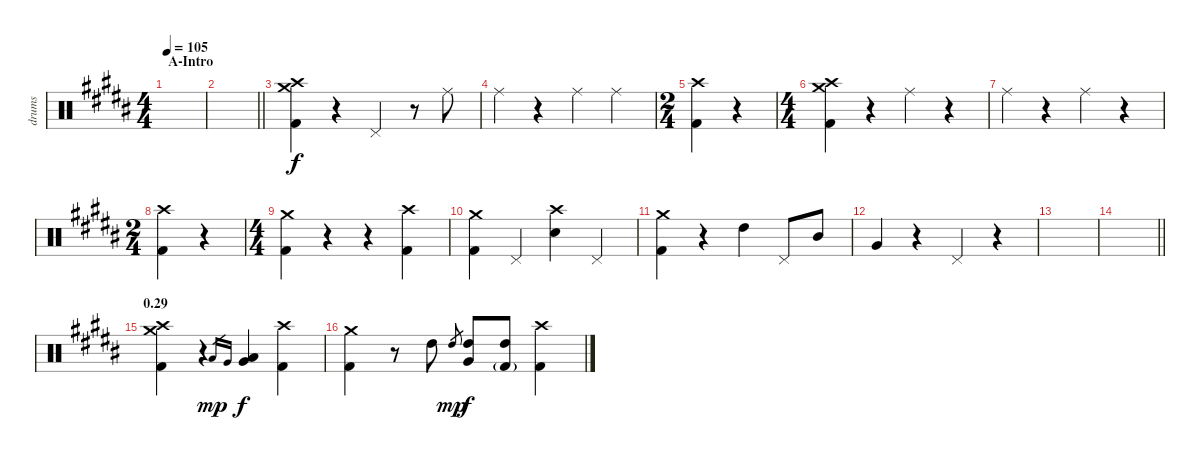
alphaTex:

\track ("drums" "drums") {instrument percussion}
\staff {score}
\articulation defaults
\ts (4 4)
\section ("" "A-Intro")
\tempo 105
\clef neutral
\ks b
|
\barLineRight lightlight
|
("Crash high (hit)" "Crash medium (hit)" "Kick (hit) 2").4 r.4 "Pedal Hi-Hat (hit)".4 r.8 "Ride (middle)".8 |
"Ride (middle)".4 r.4 "Ride (middle)".4 "Ride (middle)".4 |
\ts (2 4)
("Crash high (hit)" "Kick (hit) 2").4 r.4 |
\ts (4 4)
("Crash high (hit)" "Crash medium (hit)" "Kick (hit) 2").4 r.4 "Ride (middle)".4 r.4 |
"Ride (middle)".4 r.4 "Ride (middle)".4 r.4 |
\ts (2 4)
("Crash high (hit)" "Kick (hit) 2").4 r.4 |
\ts (4 4)
("Crash medium (hit)" "Kick (hit) 2").4 r.4 r.4 ("Crash high (hit)" "Kick (hit) 2").4 |
("Crash medium (hit)" "Kick (hit) 2").4 "Pedal Hi-Hat (hit)".4 ("Crash high (hit)" "Electric Snare (hit)").4 "Pedal Hi-Hat (hit)".4 |
("Crash medium (hit)" "Kick (hit) 2").4 r.4 "High Tom (hit)".4 "Pedal Hi-Hat (hit)".8 "Mid Tom (hit)".8 |
"Very Low Tom (hit)".4 r.4 "Pedal Hi-Hat (hit)".4 r.4 |
|
\barLineRight lightlight
|
\section ("" "0.29")
("Crash high (hit)" "Crash medium (hit)" "Kick (hit) 2").4 r.4 "Low Tom (hit)".16{gr dy mp} "Very Low Tom (hit)".16{gr} ("Low Tom (hit)" "Very Low Tom (hit)").4{dy f} ("Crash high (hit)" "Kick (hit) 2").4 |
("Crash medium (hit)" "Kick (hit) 2").4 r.8 "High Tom (hit)".8 "High Tom (hit)".8{gr dy mp} ("High Tom (hit)" "Very Low Tom (hit)").8{dy f} ("High Tom (hit)" "Kick (hit) 2"{g}).8 ("Crash high (hit)" "Kick (hit) 2").4
